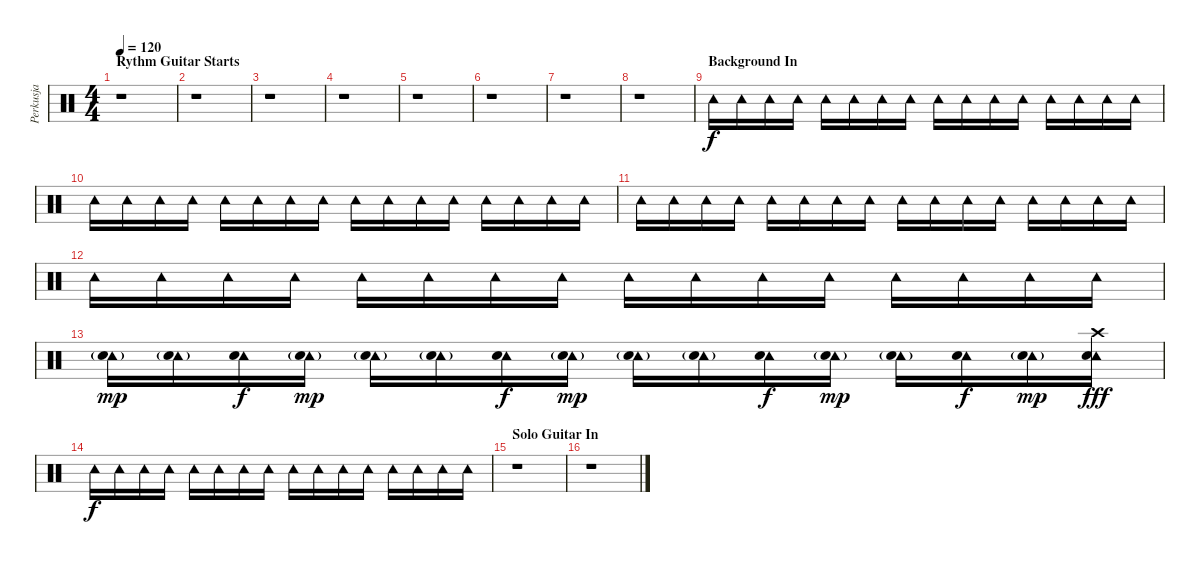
\track ("Perkusja" "Perkusja") {instrument percussion}
\staff {score}
\articulation defaults
\ts (4 4)
\section ("" "Rythm Guitar Starts")
\tempo 120
\clef neutral
\ks c
r.1{dy f} |
r.1 |
r.1 |
r.1 |
r.1 |
r.1 |
r.1 |
r.1 |
\section ("" "Background In")
"Tambourine (hit)".16 "Tambourine (hit)".16 "Tambourine (hit)".16 "Tambourine (hit)".16 "Tambourine (hit)".16 "Tambourine (hit)".16 "Tambourine (hit)".16 "Tambourine (hit)".16 "Tambourine (hit)".16 "Tambourine (hit)".16 "Tambourine (hit)".16 "Tambourine (hit)".16 "Tambourine (hit)".16 "Tambourine (hit)".16 "Tambourine (hit)".16 "Tambourine (hit)".16 |
"Tambourine (hit)".16 "Tambourine (hit)".16 "Tambourine (hit)".16 "Tambourine (hit)".16 "Tambourine (hit)".16 "Tambourine (hit)".16 "Tambourine (hit)".16 "Tambourine (hit)".16 "Tambourine (hit)".16 "Tambourine (hit)".16 "Tambourine (hit)".16 "Tambourine (hit)".16 "Tambourine (hit)".16 "Tambourine (hit)".16 "Tambourine (hit)".16 "Tambourine (hit)".16 |
"Tambourine (hit)".16 "Tambourine (hit)".16 "Tambourine (hit)".16 "Tambourine (hit)".16 "Tambourine (hit)".16 "Tambourine (hit)".16 "Tambourine (hit)".16 "Tambourine (hit)".16 "Tambourine (hit)".16 "Tambourine (hit)".16 "Tambourine (hit)".16 "Tambourine (hit)".16 "Tambourine (hit)".16 "Tambourine (hit)".16 "Tambourine (hit)".16 "Tambourine (hit)".16 |
"Tambourine (hit)".16 "Tambourine (hit)".16 "Tambourine (hit)".16 "Tambourine (hit)".16 "Tambourine (hit)".16 "Tambourine (hit)".16 "Tambourine (hit)".16 "Tambourine (hit)".16 "Tambourine (hit)".16 "Tambourine (hit)".16 "Tambourine (hit)".16 "Tambourine (hit)".16 "Tambourine (hit)".16 "Tambourine (hit)".16 "Tambourine (hit)".16 "Tambourine (hit)".16 |
("Tambourine (hit)" "Electric Snare (hit)"{g}).16{dy mp} ("Tambourine (hit)" "Electric Snare (hit)"{g}).16 ("Tambourine (hit)" "Electric Snare (hit)").16{dy f} ("Tambourine (hit)" "Electric Snare (hit)"{g}).16{dy mp} ("Tambourine (hit)" "Electric Snare (hit)"{g}).16 ("Tambourine (hit)" "Electric Snare (hit)"{g}).16 ("Tambourine (hit)" "Electric Snare (hit)").16{dy f} ("Tambourine (hit)" "Electric Snare (hit)"{g}).16{dy mp} ("Tambourine (hit)" "Electric Snare (hit)"{g}).16 ("Tambourine (hit)" "Electric Snare (hit)"{g}).16 ("Tambourine (hit)" "Electric Snare (hit)").16{dy f} ("Tambourine (hit)" "Electric Snare (hit)"{g}).16{dy mp} ("Tambourine (hit)" "Electric Snare (hit)"{g}).16 ("Tambourine (hit)" "Electric Snare (hit)").16{dy f} ("Tambourine (hit)" "Electric Snare (hit)"{g}).16{dy mp} ("Tambourine (hit)" "Electric Snare (hit)" "Crash high (hit)").16{dy fff} |
"Tambourine (hit)".16{dy f} "Tambourine (hit)".16 "Tambourine (hit)".16 "Tambourine (hit)".16 "Tambourine (hit)".16 "Tambourine (hit)".16 "Tambourine (hit)".16 "Tambourine (hit)".16 "Tambourine (hit)".16 "Tambourine (hit)".16 "Tambourine (hit)".16 "Tambourine (hit)".16 "Tambourine (hit)".16 "Tambourine (hit)".16 "Tambourine (hit)".16 "Tambourine (hit)".16 |
\section ("" "Solo Guitar In")
r.1 |
r.1
